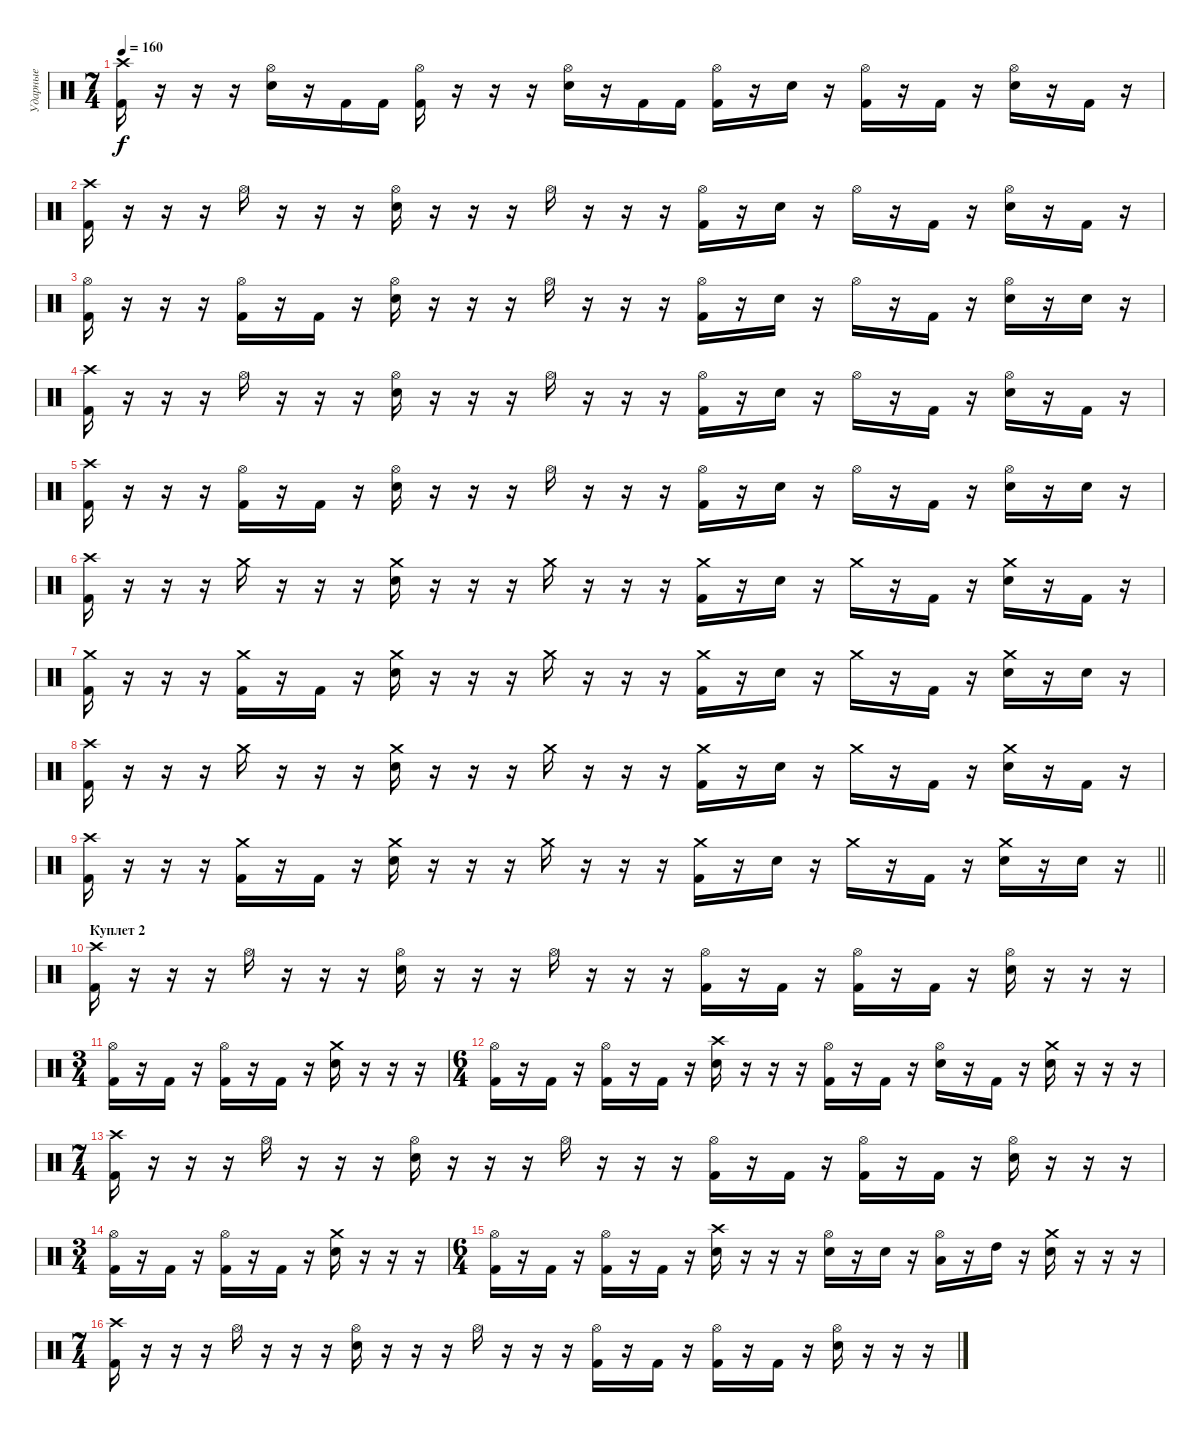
\track ("Ударные" "Ударные") {instrument percussion}
\staff {score}
\articulation defaults
\ts (7 4)
\tempo 160
\clef neutral
\ks c
("Crash high (hit)" "Kick (hit) 2").16{dy f} r.16 r.16 r.16 ("Hi-Hat (open)" "Electric Snare (hit)").16 r.16 "Kick (hit) 2".16 "Kick (hit) 2".16 ("Hi-Hat (open)" "Kick (hit) 2").16 r.16 r.16 r.16 ("Hi-Hat (open)" "Electric Snare (hit)").16 r.16 "Kick (hit) 2".16 "Kick (hit) 2".16 ("Hi-Hat (open)" "Kick (hit) 2").16 r.16 "Electric Snare (hit)".16 r.16 ("Hi-Hat (open)" "Kick (hit) 2").16 r.16 "Kick (hit) 2".16 r.16 ("Hi-Hat (open)" "Electric Snare (hit)").16 r.16 "Kick (hit) 2".16 r.16 |
("Crash high (hit)" "Kick (hit) 2").16 r.16 r.16 r.16 "Hi-Hat (open)".16 r.16 r.16 r.16 ("Hi-Hat (open)" "Electric Snare (hit)").16 r.16 r.16 r.16 "Hi-Hat (open)".16 r.16 r.16 r.16 ("Hi-Hat (open)" "Kick (hit) 2").16 r.16 "Electric Snare (hit)".16 r.16 "Hi-Hat (open)".16 r.16 "Kick (hit) 2".16 r.16 ("Hi-Hat (open)" "Electric Snare (hit)").16 r.16 "Kick (hit) 2".16 r.16 |
("Hi-Hat (open)" "Kick (hit) 2").16 r.16 r.16 r.16 ("Hi-Hat (open)" "Kick (hit) 2").16 r.16 "Kick (hit) 2".16 r.16 ("Hi-Hat (open)" "Electric Snare (hit)").16 r.16 r.16 r.16 "Hi-Hat (open)".16 r.16 r.16 r.16 ("Hi-Hat (open)" "Kick (hit) 2").16 r.16 "Electric Snare (hit)".16 r.16 "Hi-Hat (open)".16 r.16 "Kick (hit) 2".16 r.16 ("Hi-Hat (open)" "Electric Snare (hit)").16 r.16 "Electric Snare (hit)".16 r.16 |
("Crash high (hit)" "Kick (hit) 2").16 r.16 r.16 r.16 "Hi-Hat (open)".16 r.16 r.16 r.16 ("Hi-Hat (open)" "Electric Snare (hit)").16 r.16 r.16 r.16 "Hi-Hat (open)".16 r.16 r.16 r.16 ("Hi-Hat (open)" "Kick (hit) 2").16 r.16 "Electric Snare (hit)".16 r.16 "Hi-Hat (open)".16 r.16 "Kick (hit) 2".16 r.16 ("Hi-Hat (open)" "Electric Snare (hit)").16 r.16 "Kick (hit) 2".16 r.16 |
("Crash high (hit)" "Kick (hit) 2").16 r.16 r.16 r.16 ("Hi-Hat (open)" "Kick (hit) 2").16 r.16 "Kick (hit) 2".16 r.16 ("Hi-Hat (open)" "Electric Snare (hit)").16 r.16 r.16 r.16 "Hi-Hat (open)".16 r.16 r.16 r.16 ("Hi-Hat (open)" "Kick (hit) 2").16 r.16 "Electric Snare (hit)".16 r.16 "Hi-Hat (open)".16 r.16 "Kick (hit) 2".16 r.16 ("Hi-Hat (open)" "Electric Snare (hit)").16 r.16 "Electric Snare (hit)".16 r.16 |
("Crash high (hit)" "Kick (hit) 2").16 r.16 r.16 r.16 "Crash medium (hit)".16 r.16 r.16 r.16 ("Crash medium (hit)" "Electric Snare (hit)").16 r.16 r.16 r.16 "Crash medium (hit)".16 r.16 r.16 r.16 ("Crash medium (hit)" "Kick (hit) 2").16 r.16 "Electric Snare (hit)".16 r.16 "Crash medium (hit)".16 r.16 "Kick (hit) 2".16 r.16 ("Crash medium (hit)" "Electric Snare (hit)").16 r.16 "Kick (hit) 2".16 r.16 |
("Crash medium (hit)" "Kick (hit) 2").16 r.16 r.16 r.16 ("Crash medium (hit)" "Kick (hit) 2").16 r.16 "Kick (hit) 2".16 r.16 ("Crash medium (hit)" "Electric Snare (hit)").16 r.16 r.16 r.16 "Crash medium (hit)".16 r.16 r.16 r.16 ("Crash medium (hit)" "Kick (hit) 2").16 r.16 "Electric Snare (hit)".16 r.16 "Crash medium (hit)".16 r.16 "Kick (hit) 2".16 r.16 ("Crash medium (hit)" "Electric Snare (hit)").16 r.16 "Electric Snare (hit)".16 r.16 |
("Crash high (hit)" "Kick (hit) 2").16 r.16 r.16 r.16 "Crash medium (hit)".16 r.16 r.16 r.16 ("Crash medium (hit)" "Electric Snare (hit)").16 r.16 r.16 r.16 "Crash medium (hit)".16 r.16 r.16 r.16 ("Crash medium (hit)" "Kick (hit) 2").16 r.16 "Electric Snare (hit)".16 r.16 "Crash medium (hit)".16 r.16 "Kick (hit) 2".16 r.16 ("Crash medium (hit)" "Electric Snare (hit)").16 r.16 "Kick (hit) 2".16 r.16 |
\barLineRight lightlight
("Crash high (hit)" "Kick (hit) 2").16 r.16 r.16 r.16 ("Crash medium (hit)" "Kick (hit) 2").16 r.16 "Kick (hit) 2".16 r.16 ("Crash medium (hit)" "Electric Snare (hit)").16 r.16 r.16 r.16 "Crash medium (hit)".16 r.16 r.16 r.16 ("Crash medium (hit)" "Kick (hit) 2").16 r.16 "Electric Snare (hit)".16 r.16 "Crash medium (hit)".16 r.16 "Kick (hit) 2".16 r.16 ("Crash medium (hit)" "Electric Snare (hit)").16 r.16 "Electric Snare (hit)".16 r.16 |
\section ("" "Куплет 2")
("Crash high (hit)" "Kick (hit) 2").16 r.16 r.16 r.16 "Hi-Hat (open)".16 r.16 r.16 r.16 ("Hi-Hat (open)" "Electric Snare (hit)").16 r.16 r.16 r.16 "Hi-Hat (open)".16 r.16 r.16 r.16 ("Hi-Hat (open)" "Kick (hit) 2").16 r.16 "Kick (hit) 2".16 r.16 ("Hi-Hat (open)" "Kick (hit) 2").16 r.16 "Kick (hit) 2".16 r.16 ("Hi-Hat (open)" "Electric Snare (hit)").16 r.16 r.16 r.16 |
\ts (3 4)
("Hi-Hat (open)" "Kick (hit) 2").16 r.16 "Kick (hit) 2".16 r.16 ("Hi-Hat (open)" "Kick (hit) 2").16 r.16 "Kick (hit) 2".16 r.16 ("Crash medium (hit)" "Electric Snare (hit)").16 r.16 r.16 r.16 |
\ts (6 4)
("Hi-Hat (open)" "Kick (hit) 2").16 r.16 "Kick (hit) 2".16 r.16 ("Hi-Hat (open)" "Kick (hit) 2").16 r.16 "Kick (hit) 2".16 r.16 ("Crash high (hit)" "Electric Snare (hit)").16 r.16 r.16 r.16 ("Hi-Hat (open)" "Kick (hit) 2").16 r.16 "Kick (hit) 2".16 r.16 ("Hi-Hat (open)" "Electric Snare (hit)").16 r.16 "Kick (hit) 2".16 r.16 ("Crash medium (hit)" "Electric Snare (hit)").16 r.16 r.16 r.16 |
\ts (7 4)
("Crash high (hit)" "Kick (hit) 2").16 r.16 r.16 r.16 "Hi-Hat (open)".16 r.16 r.16 r.16 ("Hi-Hat (open)" "Electric Snare (hit)").16 r.16 r.16 r.16 "Hi-Hat (open)".16 r.16 r.16 r.16 ("Hi-Hat (open)" "Kick (hit) 2").16 r.16 "Kick (hit) 2".16 r.16 ("Hi-Hat (open)" "Kick (hit) 2").16 r.16 "Kick (hit) 2".16 r.16 ("Hi-Hat (open)" "Electric Snare (hit)").16 r.16 r.16 r.16 |
\ts (3 4)
("Hi-Hat (open)" "Kick (hit) 2").16 r.16 "Kick (hit) 2".16 r.16 ("Hi-Hat (open)" "Kick (hit) 2").16 r.16 "Kick (hit) 2".16 r.16 ("Crash medium (hit)" "Electric Snare (hit)").16 r.16 r.16 r.16 |
\ts (6 4)
("Hi-Hat (open)" "Kick (hit) 2").16 r.16 "Kick (hit) 2".16 r.16 ("Hi-Hat (open)" "Kick (hit) 2").16 r.16 "Kick (hit) 2".16 r.16 ("Crash high (hit)" "Electric Snare (hit)").16 r.16 r.16 r.16 ("Hi-Hat (open)" "Electric Snare (hit)").16 r.16 "Electric Snare (hit)".16 r.16 ("Hi-Hat (open)" "Low Tom (hit)").16 r.16 "High Tom (hit)".16 r.16 ("Crash medium (hit)" "Electric Snare (hit)").16 r.16 r.16 r.16 |
\ts (7 4)
("Crash high (hit)" "Kick (hit) 2").16 r.16 r.16 r.16 "Hi-Hat (open)".16 r.16 r.16 r.16 ("Hi-Hat (open)" "Electric Snare (hit)").16 r.16 r.16 r.16 "Hi-Hat (open)".16 r.16 r.16 r.16 ("Hi-Hat (open)" "Kick (hit) 2").16 r.16 "Kick (hit) 2".16 r.16 ("Hi-Hat (open)" "Kick (hit) 2").16 r.16 "Kick (hit) 2".16 r.16 ("Hi-Hat (open)" "Electric Snare (hit)").16 r.16 r.16 r.16
